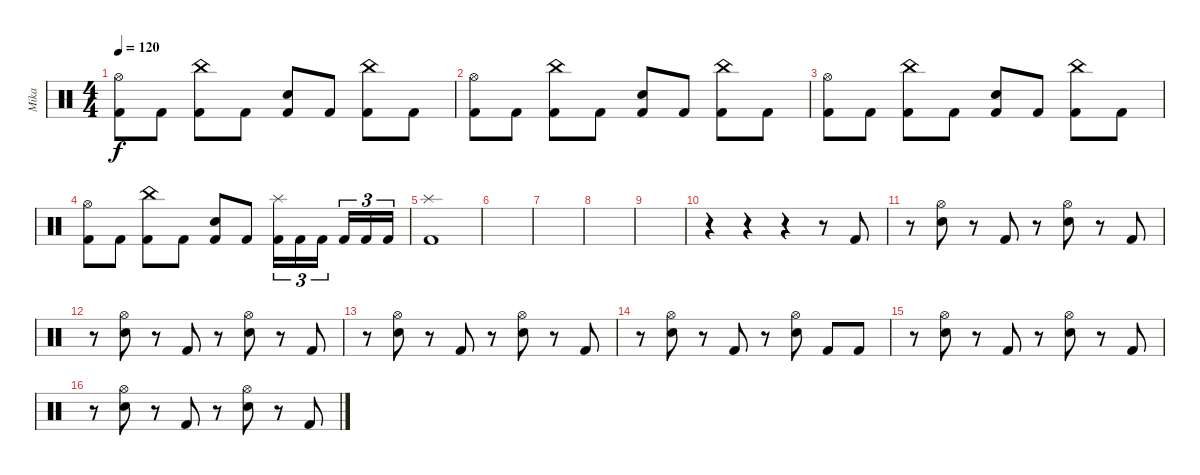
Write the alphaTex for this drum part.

\track ("Mika" "Mika") {instrument percussion}
\staff {score}
\articulation defaults
\ts (4 4)
\tempo 120
\clef neutral
\ks c
("Hi-Hat (open)" "Kick (hit) 2").8{dy f} "Kick (hit) 2".8 ("China (hit)" "Kick (hit) 2").8 "Kick (hit) 2".8 ("Electric Snare (hit)" "Kick (hit) 2").8 "Kick (hit) 2".8 ("China (hit)" "Kick (hit) 2").8 "Kick (hit) 2".8 |
("Hi-Hat (open)" "Kick (hit) 2").8 "Kick (hit) 2".8 ("China (hit)" "Kick (hit) 2").8 "Kick (hit) 2".8 ("Electric Snare (hit)" "Kick (hit) 2").8 "Kick (hit) 2".8 ("China (hit)" "Kick (hit) 2").8 "Kick (hit) 2".8 |
("Hi-Hat (open)" "Kick (hit) 2").8 "Kick (hit) 2".8 ("China (hit)" "Kick (hit) 2").8 "Kick (hit) 2".8 ("Electric Snare (hit)" "Kick (hit) 2").8 "Kick (hit) 2".8 ("China (hit)" "Kick (hit) 2").8 "Kick (hit) 2".8 |
("Hi-Hat (open)" "Kick (hit) 2").8 "Kick (hit) 2".8 ("China (hit)" "Kick (hit) 2").8 "Kick (hit) 2".8 ("Electric Snare (hit)" "Kick (hit) 2").8 "Kick (hit) 2".8 ("Splash (hit)" "Kick (hit) 2").16{tu (3 2)} "Kick (hit) 2".16{tu (3 2)} "Kick (hit) 2".16{tu (3 2) beam splitsecondary} "Kick (hit) 2".16{tu (3 2)} "Kick (hit) 2".16{tu (3 2)} "Kick (hit) 2".16{tu (3 2)} |
("Splash (hit)" "Kick (hit) 2").1 |
|
|
|
|
r.4 r.4 r.4 r.8 "Kick (hit) 2".8 |
r.8 ("Hi-Hat (open)" "Electric Snare (hit)").8 r.8 "Kick (hit) 2".8 r.8 ("Hi-Hat (open)" "Electric Snare (hit)").8 r.8 "Kick (hit) 2".8 |
r.8 ("Hi-Hat (open)" "Electric Snare (hit)").8 r.8 "Kick (hit) 2".8 r.8 ("Hi-Hat (open)" "Electric Snare (hit)").8 r.8 "Kick (hit) 2".8 |
r.8 ("Hi-Hat (open)" "Electric Snare (hit)").8 r.8 "Kick (hit) 2".8 r.8 ("Hi-Hat (open)" "Electric Snare (hit)").8 r.8 "Kick (hit) 2".8 |
r.8 ("Hi-Hat (open)" "Electric Snare (hit)").8 r.8 "Kick (hit) 2".8 r.8 ("Hi-Hat (open)" "Electric Snare (hit)").8 "Kick (hit) 2".8 "Kick (hit) 2".8 |
r.8 ("Hi-Hat (open)" "Electric Snare (hit)").8 r.8 "Kick (hit) 2".8 r.8 ("Hi-Hat (open)" "Electric Snare (hit)").8 r.8 "Kick (hit) 2".8 |
r.8 ("Hi-Hat (open)" "Electric Snare (hit)").8 r.8 "Kick (hit) 2".8 r.8 ("Hi-Hat (open)" "Electric Snare (hit)").8 r.8 "Kick (hit) 2".8
